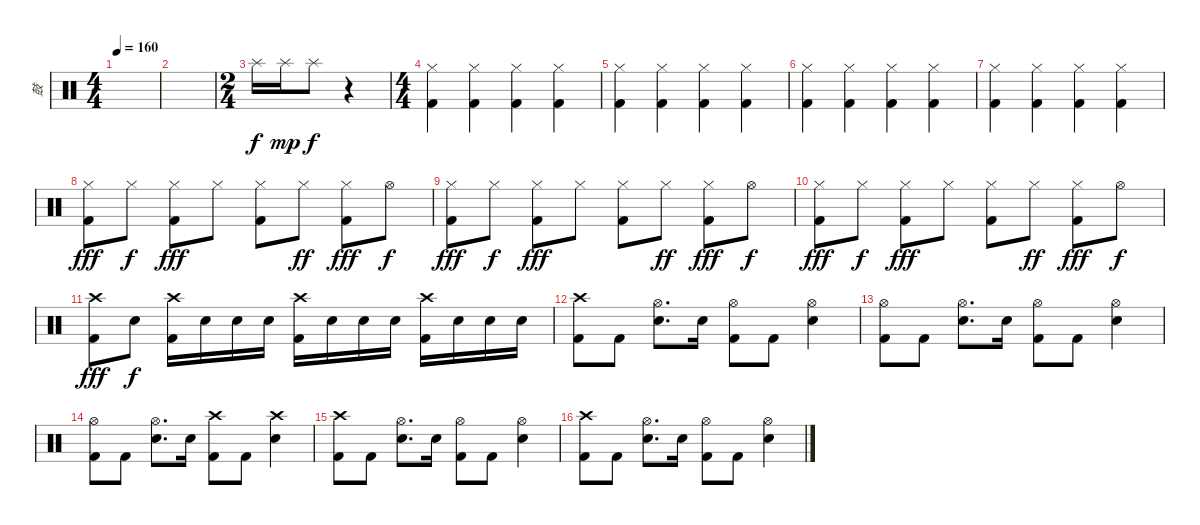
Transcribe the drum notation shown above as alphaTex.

\track ("鼓" "鼓") {instrument percussion}
\staff {score}
\articulation defaults
\ts (4 4)
\tempo 160
\clef neutral
\ks c
|
|
\ts (2 4)
"Splash (hit)".16 "Splash (hit)".16{dy mp} "Splash (hit)".8{dy f} r.4 |
\ts (4 4)
("Hi-Hat (closed)" "Kick (hit) 2").4 ("Hi-Hat (closed)" "Kick (hit) 2").4 ("Hi-Hat (closed)" "Kick (hit) 2").4 ("Hi-Hat (closed)" "Kick (hit) 2").4 |
("Hi-Hat (closed)" "Kick (hit) 2").4 ("Hi-Hat (closed)" "Kick (hit) 2").4 ("Hi-Hat (closed)" "Kick (hit) 2").4 ("Hi-Hat (closed)" "Kick (hit) 2").4 |
("Hi-Hat (closed)" "Kick (hit) 2").4 ("Hi-Hat (closed)" "Kick (hit) 2").4 ("Hi-Hat (closed)" "Kick (hit) 2").4 ("Hi-Hat (closed)" "Kick (hit) 2").4 |
("Hi-Hat (closed)" "Kick (hit) 2").4 ("Hi-Hat (closed)" "Kick (hit) 2").4 ("Hi-Hat (closed)" "Kick (hit) 2").4 ("Hi-Hat (closed)" "Kick (hit) 2").4 |
("Hi-Hat (closed)" "Kick (hit) 2").8{dy fff} "Hi-Hat (closed)".8{dy f} ("Hi-Hat (closed)" "Kick (hit) 2").8{dy fff} "Hi-Hat (closed)".8 ("Hi-Hat (closed)" "Kick (hit) 2").8 "Hi-Hat (closed)".8{dy ff} ("Hi-Hat (closed)" "Kick (hit) 2").8{dy fff} "Hi-Hat (open)".8{dy f} |
("Hi-Hat (closed)" "Kick (hit) 2").8{dy fff} "Hi-Hat (closed)".8{dy f} ("Hi-Hat (closed)" "Kick (hit) 2").8{dy fff} "Hi-Hat (closed)".8 ("Hi-Hat (closed)" "Kick (hit) 2").8 "Hi-Hat (closed)".8{dy ff} ("Hi-Hat (closed)" "Kick (hit) 2").8{dy fff} "Hi-Hat (open)".8{dy f} |
("Hi-Hat (closed)" "Kick (hit) 2").8{dy fff} "Hi-Hat (closed)".8{dy f} ("Hi-Hat (closed)" "Kick (hit) 2").8{dy fff} "Hi-Hat (closed)".8 ("Hi-Hat (closed)" "Kick (hit) 2").8 "Hi-Hat (closed)".8{dy ff} ("Hi-Hat (closed)" "Kick (hit) 2").8{dy fff} "Hi-Hat (open)".8{dy f} |
("Crash high (hit)" "Kick (hit) 2").8{dy fff} "Snare (hit) 2".8{dy f} ("Crash high (hit)" "Kick (hit) 2").16 "Snare (hit) 2".16 "Snare (hit) 2".16 "Snare (hit) 2".16 ("Crash high (hit)" "Kick (hit) 2").16 "Snare (hit) 2".16 "Snare (hit) 2".16 "Snare (hit) 2".16 ("Crash high (hit)" "Kick (hit) 2").16 "Snare (hit) 2".16 "Snare (hit) 2".16 "Snare (hit) 2".16 |
("Crash high (hit)" "Kick (hit) 2").8 "Kick (hit) 2".8 ("Hi-Hat (open)" "Snare (hit) 2").8{d} "Snare (hit) 2".16 ("Hi-Hat (open)" "Kick (hit) 2").8 "Kick (hit) 2".8 ("Hi-Hat (open)" "Snare (hit) 2").4 |
("Hi-Hat (open)" "Kick (hit) 2").8 "Kick (hit) 2".8 ("Hi-Hat (open)" "Snare (hit) 2").8{d} "Snare (hit) 2".16 ("Hi-Hat (open)" "Kick (hit) 2").8 "Kick (hit) 2".8 ("Hi-Hat (open)" "Snare (hit) 2").4 |
("Hi-Hat (open)" "Kick (hit) 2").8 "Kick (hit) 2".8 ("Hi-Hat (open)" "Snare (hit) 2").8{d} "Snare (hit) 2".16 ("Crash high (hit)" "Kick (hit) 2").8 "Kick (hit) 2".8 ("Crash high (hit)" "Snare (hit) 2").4 |
("Crash high (hit)" "Kick (hit) 2").8 "Kick (hit) 2".8 ("Hi-Hat (open)" "Snare (hit) 2").8{d} "Snare (hit) 2".16 ("Hi-Hat (open)" "Kick (hit) 2").8 "Kick (hit) 2".8 ("Hi-Hat (open)" "Snare (hit) 2").4 |
("Crash high (hit)" "Kick (hit) 2").8 "Kick (hit) 2".8 ("Hi-Hat (open)" "Snare (hit) 2").8{d} "Snare (hit) 2".16 ("Hi-Hat (open)" "Kick (hit) 2").8 "Kick (hit) 2".8 ("Hi-Hat (open)" "Snare (hit) 2").4
